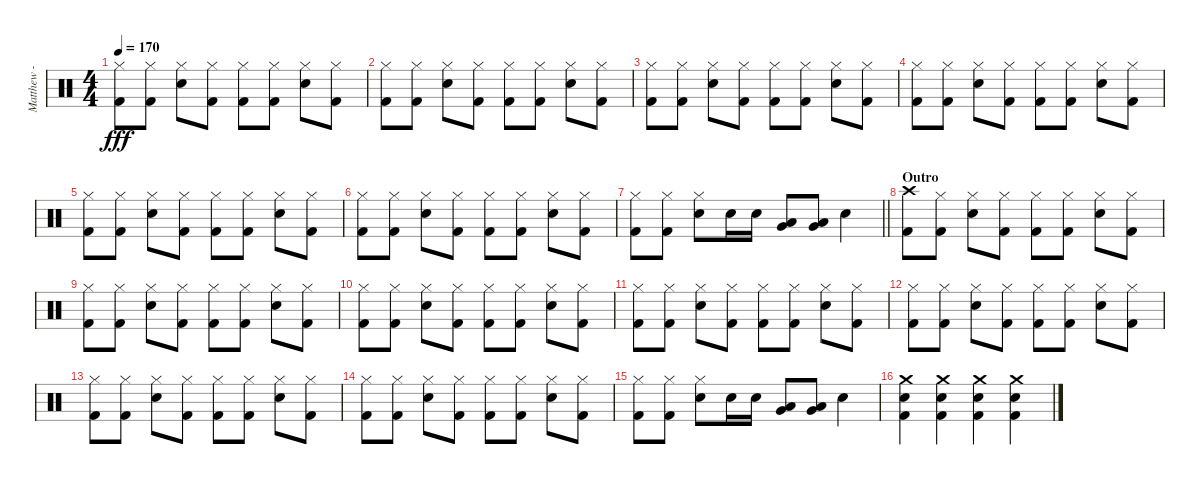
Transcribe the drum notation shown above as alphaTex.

\track ("Matthew - Drums" "Matthew - ") {instrument percussion}
\staff {score}
\articulation defaults
\ts (4 4)
\tempo 170
\clef neutral
\ks c
("Hi-Hat (closed)" "Kick (hit) 2").8{dy fff} ("Hi-Hat (closed)" "Kick (hit) 2").8 ("Hi-Hat (closed)" "Electric Snare (hit)").8 ("Hi-Hat (closed)" "Kick (hit) 2").8 ("Hi-Hat (closed)" "Kick (hit) 2").8 ("Hi-Hat (closed)" "Kick (hit) 2").8 ("Hi-Hat (closed)" "Electric Snare (hit)").8 ("Hi-Hat (closed)" "Kick (hit) 2").8 |
("Hi-Hat (closed)" "Kick (hit) 2").8 ("Hi-Hat (closed)" "Kick (hit) 2").8 ("Hi-Hat (closed)" "Electric Snare (hit)").8 ("Hi-Hat (closed)" "Kick (hit) 2").8 ("Hi-Hat (closed)" "Kick (hit) 2").8 ("Hi-Hat (closed)" "Kick (hit) 2").8 ("Hi-Hat (closed)" "Electric Snare (hit)").8 ("Hi-Hat (closed)" "Kick (hit) 2").8 |
("Hi-Hat (closed)" "Kick (hit) 2").8 ("Hi-Hat (closed)" "Kick (hit) 2").8 ("Hi-Hat (closed)" "Electric Snare (hit)").8 ("Hi-Hat (closed)" "Kick (hit) 2").8 ("Hi-Hat (closed)" "Kick (hit) 2").8 ("Hi-Hat (closed)" "Kick (hit) 2").8 ("Hi-Hat (closed)" "Electric Snare (hit)").8 ("Hi-Hat (closed)" "Kick (hit) 2").8 |
("Hi-Hat (closed)" "Kick (hit) 2").8 ("Hi-Hat (closed)" "Kick (hit) 2").8 ("Hi-Hat (closed)" "Electric Snare (hit)").8 ("Hi-Hat (closed)" "Kick (hit) 2").8 ("Hi-Hat (closed)" "Kick (hit) 2").8 ("Hi-Hat (closed)" "Kick (hit) 2").8 ("Hi-Hat (closed)" "Electric Snare (hit)").8 ("Hi-Hat (closed)" "Kick (hit) 2").8 |
("Hi-Hat (closed)" "Kick (hit) 2").8 ("Hi-Hat (closed)" "Kick (hit) 2").8 ("Hi-Hat (closed)" "Electric Snare (hit)").8 ("Hi-Hat (closed)" "Kick (hit) 2").8 ("Hi-Hat (closed)" "Kick (hit) 2").8 ("Hi-Hat (closed)" "Kick (hit) 2").8 ("Hi-Hat (closed)" "Electric Snare (hit)").8 ("Hi-Hat (closed)" "Kick (hit) 2").8 |
("Hi-Hat (closed)" "Kick (hit) 2").8 ("Hi-Hat (closed)" "Kick (hit) 2").8 ("Hi-Hat (closed)" "Electric Snare (hit)").8 ("Hi-Hat (closed)" "Kick (hit) 2").8 ("Hi-Hat (closed)" "Kick (hit) 2").8 ("Hi-Hat (closed)" "Kick (hit) 2").8 ("Hi-Hat (closed)" "Electric Snare (hit)").8 ("Hi-Hat (closed)" "Kick (hit) 2").8 |
\barLineRight lightlight
("Hi-Hat (closed)" "Kick (hit) 2").8 ("Hi-Hat (closed)" "Kick (hit) 2").8 ("Hi-Hat (closed)" "Electric Snare (hit)").8 "Electric Snare (hit)".16 "Electric Snare (hit)".16 ("Low Floor Tom (hit)" "Very Low Tom (hit)").8 ("Low Floor Tom (hit)" "Very Low Tom (hit)").8 "Electric Snare (hit)".4 |
\section ("" "Outro")
("Crash high (hit)" "Kick (hit) 2").8 ("Hi-Hat (closed)" "Kick (hit) 2").8 ("Hi-Hat (closed)" "Electric Snare (hit)").8 ("Hi-Hat (closed)" "Kick (hit) 2").8 ("Hi-Hat (closed)" "Kick (hit) 2").8 ("Hi-Hat (closed)" "Kick (hit) 2").8 ("Hi-Hat (closed)" "Electric Snare (hit)").8 ("Hi-Hat (closed)" "Kick (hit) 2").8 |
("Hi-Hat (closed)" "Kick (hit) 2").8 ("Hi-Hat (closed)" "Kick (hit) 2").8 ("Hi-Hat (closed)" "Electric Snare (hit)").8 ("Hi-Hat (closed)" "Kick (hit) 2").8 ("Hi-Hat (closed)" "Kick (hit) 2").8 ("Hi-Hat (closed)" "Kick (hit) 2").8 ("Hi-Hat (closed)" "Electric Snare (hit)").8 ("Hi-Hat (closed)" "Kick (hit) 2").8 |
("Hi-Hat (closed)" "Kick (hit) 2").8 ("Hi-Hat (closed)" "Kick (hit) 2").8 ("Hi-Hat (closed)" "Electric Snare (hit)").8 ("Hi-Hat (closed)" "Kick (hit) 2").8 ("Hi-Hat (closed)" "Kick (hit) 2").8 ("Hi-Hat (closed)" "Kick (hit) 2").8 ("Hi-Hat (closed)" "Electric Snare (hit)").8 ("Hi-Hat (closed)" "Kick (hit) 2").8 |
("Hi-Hat (closed)" "Kick (hit) 2").8 ("Hi-Hat (closed)" "Kick (hit) 2").8 ("Hi-Hat (closed)" "Electric Snare (hit)").8 ("Hi-Hat (closed)" "Kick (hit) 2").8 ("Hi-Hat (closed)" "Kick (hit) 2").8 ("Hi-Hat (closed)" "Kick (hit) 2").8 ("Hi-Hat (closed)" "Electric Snare (hit)").8 ("Hi-Hat (closed)" "Kick (hit) 2").8 |
("Hi-Hat (closed)" "Kick (hit) 2").8 ("Hi-Hat (closed)" "Kick (hit) 2").8 ("Hi-Hat (closed)" "Electric Snare (hit)").8 ("Hi-Hat (closed)" "Kick (hit) 2").8 ("Hi-Hat (closed)" "Kick (hit) 2").8 ("Hi-Hat (closed)" "Kick (hit) 2").8 ("Hi-Hat (closed)" "Electric Snare (hit)").8 ("Hi-Hat (closed)" "Kick (hit) 2").8 |
("Hi-Hat (closed)" "Kick (hit) 2").8 ("Hi-Hat (closed)" "Kick (hit) 2").8 ("Hi-Hat (closed)" "Electric Snare (hit)").8 ("Hi-Hat (closed)" "Kick (hit) 2").8 ("Hi-Hat (closed)" "Kick (hit) 2").8 ("Hi-Hat (closed)" "Kick (hit) 2").8 ("Hi-Hat (closed)" "Electric Snare (hit)").8 ("Hi-Hat (closed)" "Kick (hit) 2").8 |
("Hi-Hat (closed)" "Kick (hit) 2").8 ("Hi-Hat (closed)" "Kick (hit) 2").8 ("Hi-Hat (closed)" "Electric Snare (hit)").8 ("Hi-Hat (closed)" "Kick (hit) 2").8 ("Hi-Hat (closed)" "Kick (hit) 2").8 ("Hi-Hat (closed)" "Kick (hit) 2").8 ("Hi-Hat (closed)" "Electric Snare (hit)").8 ("Hi-Hat (closed)" "Kick (hit) 2").8 |
("Hi-Hat (closed)" "Kick (hit) 2").8 ("Hi-Hat (closed)" "Kick (hit) 2").8 ("Hi-Hat (closed)" "Electric Snare (hit)").8 "Electric Snare (hit)".16 "Electric Snare (hit)".16 ("Low Floor Tom (hit)" "Very Low Tom (hit)").8 ("Low Floor Tom (hit)" "Very Low Tom (hit)").8 "Electric Snare (hit)".4 |
("Crash medium (hit)" "Electric Snare (hit)" "Kick (hit) 2").4 ("Crash medium (hit)" "Electric Snare (hit)" "Kick (hit) 2").4 ("Crash medium (hit)" "Electric Snare (hit)" "Kick (hit) 2").4 ("Crash medium (hit)" "Electric Snare (hit)" "Kick (hit) 2").4
